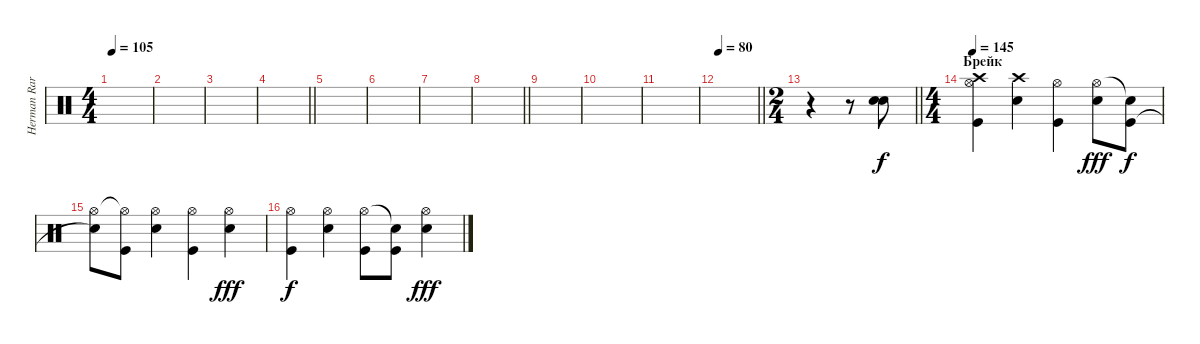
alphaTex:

\track ("Herman Rarebell" "Herman Rar") {instrument percussion}
\staff {score}
\articulation defaults
\ts (4 4)
\tempo 105
\clef neutral
\ks c
|
|
|
\barLineRight lightlight
|
|
|
|
\barLineRight lightlight
|
|
|
|
\tempo 80
\barLineRight lightlight
|
\ts (2 4)
\barLineRight lightlight
r.4 r.8 ("Electric Snare (hit)" "Electric Snare (hit)").8 |
\ts (4 4)
\section ("" "Брейк")
\tempo 145
("Hi-Hat (open)" "Crash high (hit)" "Kick (hit)").4 ("Crash high (hit)" "Snare (hit) 2").4 ("Hi-Hat (open)" "Kick (hit)").4 ("Hi-Hat (open)" "Snare (hit) 2").8{dy fff} ("Snare (hit)"{t} "Kick (hit)").8{dy f} |
("Hi-Hat (open)" "Snare (hit)"{t}).8 ("Hi-Hat (open)"{t} "Kick (hit)").8 ("Hi-Hat (open)" "Snare (hit) 2").4 ("Hi-Hat (open)" "Kick (hit)").4 ("Hi-Hat (open)" "Snare (hit) 2").4{dy fff} |
("Hi-Hat (open)" "Kick (hit)").4{dy f} ("Hi-Hat (open)" "Snare (hit) 2").4 ("Hi-Hat (open)" "Kick (hit)").8 ("Snare (hit)"{t} "Kick (hit)").8 ("Hi-Hat (open)" "Snare (hit) 2").4{dy fff}
